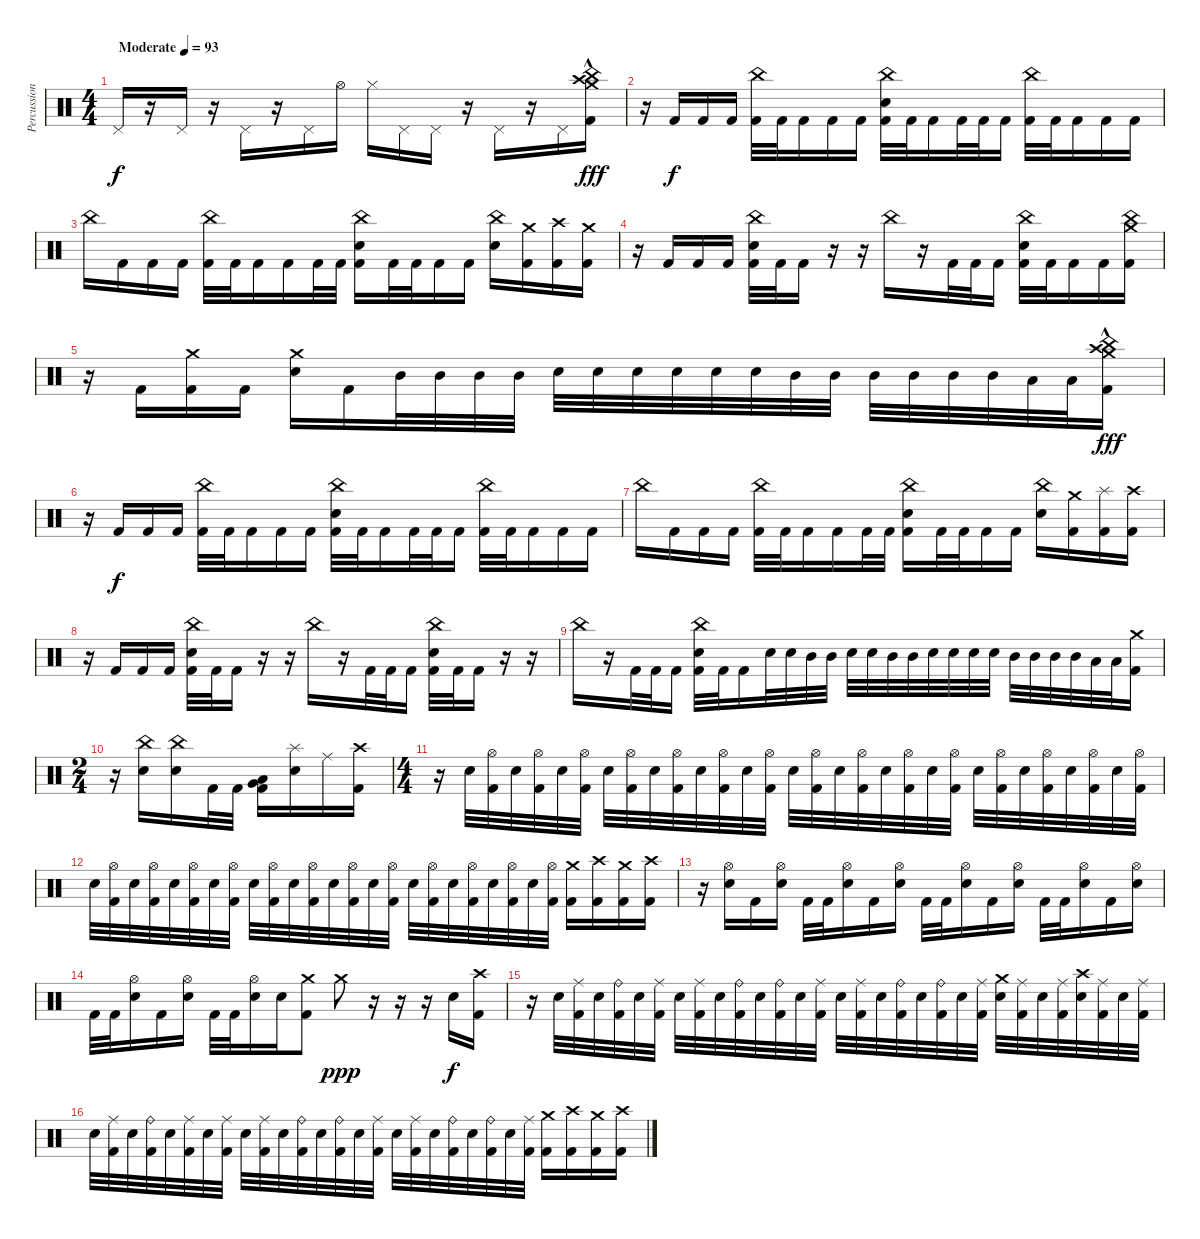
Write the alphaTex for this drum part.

\track ("Percussion" "Percussion") {instrument percussion}
\staff {score}
\articulation defaults
\ts (4 4)
\tempo (93 "Moderate")
\clef neutral
\ks c "Pedal Hi-Hat (hit)".16{dy f}
r.16 "Pedal Hi-Hat (hit)".16 r.16 "Pedal Hi-Hat (hit)".16 r.16 "Pedal Hi-Hat (hit)".16 "Hi-Hat (open)".16 "Hi-Hat (closed)".16 "Pedal Hi-Hat (hit)".16 "Pedal Hi-Hat (hit)".16 r.16 "Pedal Hi-Hat (hit)".16 r.16 "Pedal Hi-Hat (hit)".16 ("Crash medium (hit)"{hac} "Crash high (hit)"{hac} "China (hit)"{hac} "Kick (hit) 2"{hac}).16{dy fff} |
r.16 "Kick (hit) 2".16{dy f} "Kick (hit) 2".16 "Kick (hit) 2".16 ("China (hit)" "Kick (hit) 2").32 "Kick (hit) 2".32 "Kick (hit) 2".16 "Kick (hit) 2".16 "Kick (hit) 2".16 ("China (hit)" "Electric Snare (hit)" "Kick (hit) 2").32 "Kick (hit) 2".32 "Kick (hit) 2".16 "Kick (hit) 2".32 "Kick (hit) 2".32 "Kick (hit) 2".16 ("China (hit)" "Kick (hit) 2").32 "Kick (hit) 2".32 "Kick (hit) 2".16 "Kick (hit) 2".16 "Kick (hit) 2".16 |
"China (hit)".16 "Kick (hit) 2".16 "Kick (hit) 2".16 "Kick (hit) 2".16 ("China (hit)" "Kick (hit) 2").32 "Kick (hit) 2".32 "Kick (hit) 2".16 "Kick (hit) 2".16 "Kick (hit) 2".32 "Kick (hit) 2".32 ("China (hit)" "Electric Snare (hit)" "Kick (hit) 2").16 "Kick (hit) 2".32 "Kick (hit) 2".32 "Kick (hit) 2".16 "Kick (hit) 2".16 ("China (hit)" "Electric Snare (hit)").16 ("Crash medium (hit)" "Kick (hit) 2").16 ("Crash high (hit)" "Kick (hit) 2").16 ("Crash medium (hit)" "Kick (hit) 2").16 |
r.16 "Kick (hit) 2".16 "Kick (hit) 2".16 "Kick (hit) 2".16 ("China (hit)" "Electric Snare (hit)" "Kick (hit) 2").32 "Kick (hit) 2".32 "Kick (hit) 2".16 r.16 r.16 "China (hit)".16 r.16 "Kick (hit) 2".32 "Kick (hit) 2".32 "Kick (hit) 2".16 ("China (hit)" "Electric Snare (hit)" "Kick (hit) 2").32 "Kick (hit) 2".32 "Kick (hit) 2".16 "Kick (hit) 2".16 ("China (hit)" "Crash medium (hit)" "Kick (hit) 2").16 |
r.16 "Kick (hit) 2".16 ("Crash medium (hit)" "Kick (hit) 2").16 "Kick (hit) 2".16 ("Crash medium (hit)" "Electric Snare (hit)").16 "Kick (hit) 2".16 "Mid Tom (hit)".32 "Mid Tom (hit)".32 "Mid Tom (hit)".32 "Mid Tom (hit)".32 "Electric Snare (hit)".32 "Electric Snare (hit)".32 "Electric Snare (hit)".32 "Electric Snare (hit)".32 "Electric Snare (hit)".32 "Electric Snare (hit)".32 "Mid Tom (hit)".32 "Mid Tom (hit)".32 "Mid Tom (hit)".32 "Mid Tom (hit)".32 "Mid Tom (hit)".32 "Mid Tom (hit)".32 "Low Tom (hit)".32 "Low Tom (hit)".32 ("Crash medium (hit)"{hac} "Crash high (hit)"{hac} "China (hit)"{hac} "Kick (hit) 2"{hac}).16{dy fff} |
r.16 "Kick (hit) 2".16{dy f} "Kick (hit) 2".16 "Kick (hit) 2".16 ("China (hit)" "Kick (hit) 2").32 "Kick (hit) 2".32 "Kick (hit) 2".16 "Kick (hit) 2".16 "Kick (hit) 2".16 ("China (hit)" "Electric Snare (hit)" "Kick (hit) 2").32 "Kick (hit) 2".32 "Kick (hit) 2".16 "Kick (hit) 2".32 "Kick (hit) 2".32 "Kick (hit) 2".16 ("China (hit)" "Kick (hit) 2").32 "Kick (hit) 2".32 "Kick (hit) 2".16 "Kick (hit) 2".16 "Kick (hit) 2".16 |
"China (hit)".16 "Kick (hit) 2".16 "Kick (hit) 2".16 "Kick (hit) 2".16 ("China (hit)" "Kick (hit) 2").32 "Kick (hit) 2".32 "Kick (hit) 2".16 "Kick (hit) 2".16 "Kick (hit) 2".32 "Kick (hit) 2".32 ("China (hit)" "Electric Snare (hit)" "Kick (hit) 2").16 "Kick (hit) 2".32 "Kick (hit) 2".32 "Kick (hit) 2".16 "Kick (hit) 2".16 ("China (hit)" "Electric Snare (hit)").16 ("Crash medium (hit)" "Kick (hit) 2").16 ("Splash (hit)" "Kick (hit) 2").16 ("Crash high (hit)" "Kick (hit) 2").16 |
r.16 "Kick (hit) 2".16 "Kick (hit) 2".16 "Kick (hit) 2".16 ("China (hit)" "Electric Snare (hit)" "Kick (hit) 2").32 "Kick (hit) 2".32 "Kick (hit) 2".16 r.16 r.16 "China (hit)".16 r.16 "Kick (hit) 2".32 "Kick (hit) 2".32 "Kick (hit) 2".16 ("China (hit)" "Electric Snare (hit)" "Kick (hit) 2").32 "Kick (hit) 2".32 "Kick (hit) 2".16 r.16 r.16 |
"China (hit)".16 r.16 "Kick (hit) 2".32 "Kick (hit) 2".32 "Kick (hit) 2".16 ("China (hit)" "Electric Snare (hit)" "Kick (hit) 2").32 "Kick (hit) 2".32 "Kick (hit) 2".16 "Electric Snare (hit)".32 "Electric Snare (hit)".32 "Mid Tom (hit)".32 "Mid Tom (hit)".32 "Electric Snare (hit)".32 "Electric Snare (hit)".32 "Mid Tom (hit)".32 "Mid Tom (hit)".32 "Electric Snare (hit)".32 "Electric Snare (hit)".32 "Electric Snare (hit)".32 "Electric Snare (hit)".32 "Mid Tom (hit)".32 "Mid Tom (hit)".32 "Mid Tom (hit)".32 "Mid Tom (hit)".32 "Low Tom (hit)".32 "Low Tom (hit)".32 ("Crash medium (hit)" "Kick (hit) 2").16 |
\ts (2 4)
r.16 ("China (hit)" "Electric Snare (hit)").16 ("China (hit)" "Electric Snare (hit)").16 "Kick (hit) 2".32 "Kick (hit) 2".32 ("Low Tom (hit)" "Very Low Tom (hit)" "Kick (hit) 2").16 ("Splash (hit)" "Electric Snare (hit)").16 "Ride (middle)".16 ("Crash high (hit)" "Kick (hit) 2").16 |
\ts (4 4)
r.16 "Electric Snare (hit)".32 ("Hi-Hat (open)" "Kick (hit) 2").32 "Electric Snare (hit)".32 ("Hi-Hat (open)" "Kick (hit) 2").32 "Electric Snare (hit)".32 ("Hi-Hat (open)" "Kick (hit) 2").32 "Electric Snare (hit)".32 ("Hi-Hat (open)" "Kick (hit) 2").32 "Electric Snare (hit)".32 ("Hi-Hat (open)" "Kick (hit) 2").32 "Electric Snare (hit)".32 ("Hi-Hat (open)" "Kick (hit) 2").32 "Electric Snare (hit)".32 ("Hi-Hat (open)" "Kick (hit) 2").32 "Electric Snare (hit)".32 ("Hi-Hat (open)" "Kick (hit) 2").32 "Electric Snare (hit)".32 ("Hi-Hat (open)" "Kick (hit) 2").32 "Electric Snare (hit)".32 ("Hi-Hat (open)" "Kick (hit) 2").32 "Electric Snare (hit)".32 ("Hi-Hat (open)" "Kick (hit) 2").32 "Electric Snare (hit)".32 ("Hi-Hat (open)" "Kick (hit) 2").32 "Electric Snare (hit)".32 ("Hi-Hat (open)" "Kick (hit) 2").32 "Electric Snare (hit)".32 ("Hi-Hat (open)" "Kick (hit) 2").32 "Electric Snare (hit)".32 ("Hi-Hat (open)" "Kick (hit) 2").32 |
"Electric Snare (hit)".32 ("Hi-Hat (open)" "Kick (hit) 2").32 "Electric Snare (hit)".32 ("Hi-Hat (open)" "Kick (hit) 2").32 "Electric Snare (hit)".32 ("Hi-Hat (open)" "Kick (hit) 2").32 "Electric Snare (hit)".32 ("Hi-Hat (open)" "Kick (hit) 2").32 "Electric Snare (hit)".32 ("Hi-Hat (open)" "Kick (hit) 2").32 "Electric Snare (hit)".32 ("Hi-Hat (open)" "Kick (hit) 2").32 "Electric Snare (hit)".32 ("Hi-Hat (open)" "Kick (hit) 2").32 "Electric Snare (hit)".32 ("Hi-Hat (open)" "Kick (hit) 2").32 "Electric Snare (hit)".32 ("Hi-Hat (open)" "Kick (hit) 2").32 "Electric Snare (hit)".32 ("Hi-Hat (open)" "Kick (hit) 2").32 "Electric Snare (hit)".32 ("Hi-Hat (open)" "Kick (hit) 2").32 "Electric Snare (hit)".32 ("Hi-Hat (open)" "Kick (hit) 2").32 ("Crash medium (hit)" "Kick (hit) 2").16 ("Crash high (hit)" "Kick (hit) 2").16 ("Crash medium (hit)" "Kick (hit) 2").16 ("Crash high (hit)" "Kick (hit) 2").16 |
r.16 ("Hi-Hat (open)" "Electric Snare (hit)").16 "Kick (hit) 2".16 ("Hi-Hat (open)" "Electric Snare (hit)").16 "Kick (hit) 2".32 "Kick (hit) 2".32 ("Hi-Hat (open)" "Electric Snare (hit)").16 "Kick (hit) 2".16 ("Hi-Hat (open)" "Electric Snare (hit)").16 "Kick (hit) 2".32 "Kick (hit) 2".32 ("Hi-Hat (open)" "Electric Snare (hit)").16 "Kick (hit) 2".16 ("Hi-Hat (open)" "Electric Snare (hit)").16 "Kick (hit) 2".32 "Kick (hit) 2".32 ("Hi-Hat (open)" "Electric Snare (hit)").16 "Kick (hit) 2".16 ("Hi-Hat (open)" "Electric Snare (hit)").16 |
"Kick (hit) 2".32 "Kick (hit) 2".32 ("Hi-Hat (open)" "Electric Snare (hit)").16 "Kick (hit) 2".16 ("Hi-Hat (open)" "Electric Snare (hit)").16 "Kick (hit) 2".32 "Kick (hit) 2".32 ("Hi-Hat (open)" "Electric Snare (hit)").16 "Electric Snare (hit)".16 ("Crash medium (hit)" "Kick (hit) 2").8 "Crash medium (hit)".8{dy ppp} r.16 r.16 r.16 "Electric Snare (hit)".16{dy f} ("Crash high (hit)" "Kick (hit) 2").16 |
r.16 "Electric Snare (hit)".32 ("Ride (middle)" "Kick (hit) 2").32 "Electric Snare (hit)".32 ("Ride (bell)" "Kick (hit) 2").32 "Electric Snare (hit)".32 ("Ride (middle)" "Kick (hit) 2").32 "Electric Snare (hit)".32 ("Ride (middle)" "Kick (hit) 2").32 "Electric Snare (hit)".32 ("Ride (bell)" "Kick (hit) 2").32 "Electric Snare (hit)".32 ("Ride (bell)" "Kick (hit) 2").32 "Electric Snare (hit)".32 ("Ride (middle)" "Kick (hit) 2").32 "Electric Snare (hit)".32 ("Ride (middle)" "Kick (hit) 2").32 "Electric Snare (hit)".32 ("Ride (bell)" "Kick (hit) 2").32 "Electric Snare (hit)".32 ("Ride (bell)" "Kick (hit) 2").32 "Electric Snare (hit)".32 ("Ride (middle)" "Kick (hit) 2").32 ("Crash medium (hit)" "Electric Snare (hit)").32 ("Ride (middle)" "Kick (hit) 2").32 "Electric Snare (hit)".32 ("Ride (middle)" "Kick (hit) 2").32 ("Crash high (hit)" "Electric Snare (hit)").32 ("Ride (middle)" "Kick (hit) 2").32 "Electric Snare (hit)".32 ("Ride (middle)" "Kick (hit) 2").32 |
"Electric Snare (hit)".32 ("Ride (middle)" "Kick (hit) 2").32 "Electric Snare (hit)".32 ("Ride (bell)" "Kick (hit) 2").32 "Electric Snare (hit)".32 ("Ride (middle)" "Kick (hit) 2").32 "Electric Snare (hit)".32 ("Ride (middle)" "Kick (hit) 2").32 "Electric Snare (hit)".32 ("Ride (middle)" "Kick (hit) 2").32 "Electric Snare (hit)".32 ("Ride (bell)" "Kick (hit) 2").32 "Electric Snare (hit)".32 ("Ride (bell)" "Kick (hit) 2").32 "Electric Snare (hit)".32 ("Ride (middle)" "Kick (hit) 2").32 "Electric Snare (hit)".32 ("Ride (middle)" "Kick (hit) 2").32 "Electric Snare (hit)".32 ("Ride (bell)" "Kick (hit) 2").32 "Electric Snare (hit)".32 ("Ride (bell)" "Kick (hit) 2").32 "Electric Snare (hit)".32 ("Ride (middle)" "Kick (hit) 2").32 ("Crash medium (hit)" "Kick (hit) 2").16 ("Crash high (hit)" "Kick (hit) 2").16 ("Crash medium (hit)" "Kick (hit) 2").16 ("Crash high (hit)" "Kick (hit) 2").16
